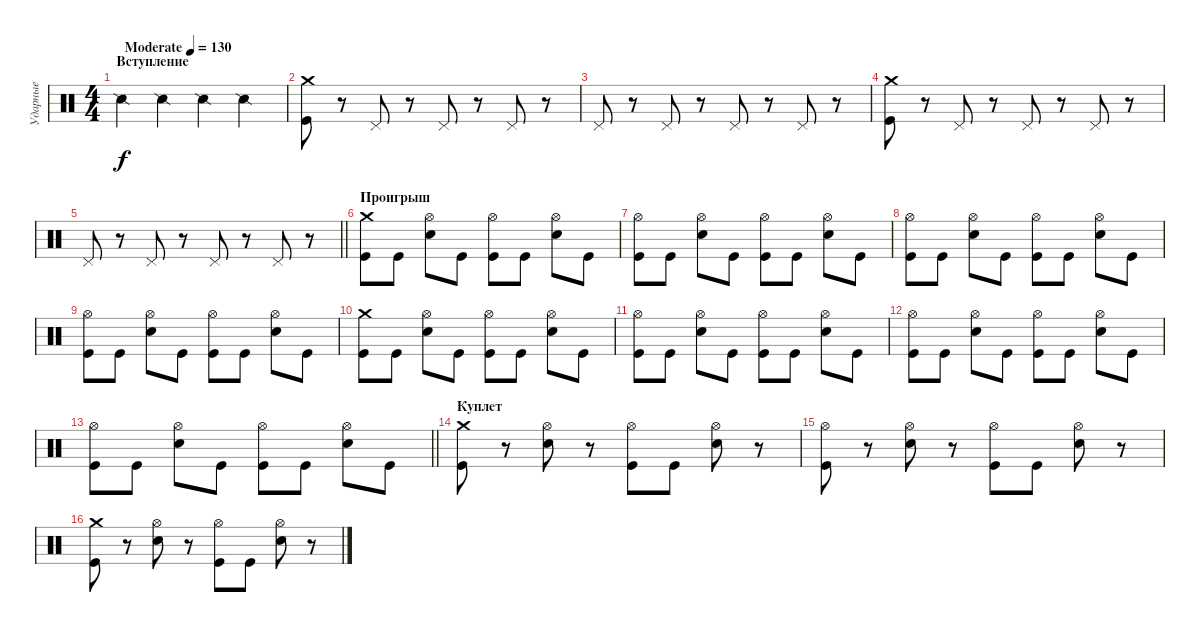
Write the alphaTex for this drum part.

\track ("Ударные" "Ударные") {instrument percussion}
\staff {score}
\articulation defaults
\ts (4 4)
\section ("" "Вступление")
\tempo (130 "Moderate")
\clef neutral
\ks c "Snare (side stick) 2".4{dy f} "Snare (side stick) 2".4 "Snare (side stick) 2".4 "Snare (side stick) 2".4
|
("Crash medium (hit)" "Kick (hit)").8 r.8 "Pedal Hi-Hat (hit)".8 r.8 "Pedal Hi-Hat (hit)".8 r.8 "Pedal Hi-Hat (hit)".8 r.8 |
"Pedal Hi-Hat (hit)".8 r.8 "Pedal Hi-Hat (hit)".8 r.8 "Pedal Hi-Hat (hit)".8 r.8 "Pedal Hi-Hat (hit)".8 r.8 |
("Crash medium (hit)" "Kick (hit)").8 r.8 "Pedal Hi-Hat (hit)".8 r.8 "Pedal Hi-Hat (hit)".8 r.8 "Pedal Hi-Hat (hit)".8 r.8 |
\barLineRight lightlight "Pedal Hi-Hat (hit)".8
r.8 "Pedal Hi-Hat (hit)".8 r.8 "Pedal Hi-Hat (hit)".8 r.8 "Pedal Hi-Hat (hit)".8 r.8 |
\section ("" "Проигрыш")
("Crash medium (hit)" "Kick (hit)").8 "Kick (hit)".8 ("Hi-Hat (open)" "Electric Snare (hit)").8 "Kick (hit)".8 ("Hi-Hat (open)" "Kick (hit)").8 "Kick (hit)".8 ("Hi-Hat (open)" "Electric Snare (hit)").8 "Kick (hit)".8 |
("Hi-Hat (open)" "Kick (hit)").8 "Kick (hit)".8 ("Hi-Hat (open)" "Electric Snare (hit)").8 "Kick (hit)".8 ("Hi-Hat (open)" "Kick (hit)").8 "Kick (hit)".8 ("Hi-Hat (open)" "Electric Snare (hit)").8 "Kick (hit)".8 |
("Hi-Hat (open)" "Kick (hit)").8 "Kick (hit)".8 ("Hi-Hat (open)" "Electric Snare (hit)").8 "Kick (hit)".8 ("Hi-Hat (open)" "Kick (hit)").8 "Kick (hit)".8 ("Hi-Hat (open)" "Electric Snare (hit)").8 "Kick (hit)".8 |
("Hi-Hat (open)" "Kick (hit)").8 "Kick (hit)".8 ("Hi-Hat (open)" "Electric Snare (hit)").8 "Kick (hit)".8 ("Hi-Hat (open)" "Kick (hit)").8 "Kick (hit)".8 ("Hi-Hat (open)" "Electric Snare (hit)").8 "Kick (hit)".8 |
("Crash medium (hit)" "Kick (hit)").8 "Kick (hit)".8 ("Hi-Hat (open)" "Electric Snare (hit)").8 "Kick (hit)".8 ("Hi-Hat (open)" "Kick (hit)").8 "Kick (hit)".8 ("Hi-Hat (open)" "Electric Snare (hit)").8 "Kick (hit)".8 |
("Hi-Hat (open)" "Kick (hit)").8 "Kick (hit)".8 ("Hi-Hat (open)" "Electric Snare (hit)").8 "Kick (hit)".8 ("Hi-Hat (open)" "Kick (hit)").8 "Kick (hit)".8 ("Hi-Hat (open)" "Electric Snare (hit)").8 "Kick (hit)".8 |
("Hi-Hat (open)" "Kick (hit)").8 "Kick (hit)".8 ("Hi-Hat (open)" "Electric Snare (hit)").8 "Kick (hit)".8 ("Hi-Hat (open)" "Kick (hit)").8 "Kick (hit)".8 ("Hi-Hat (open)" "Electric Snare (hit)").8 "Kick (hit)".8 |
\barLineRight lightlight
("Hi-Hat (open)" "Kick (hit)").8 "Kick (hit)".8 ("Hi-Hat (open)" "Electric Snare (hit)").8 "Kick (hit)".8 ("Hi-Hat (open)" "Kick (hit)").8 "Kick (hit)".8 ("Hi-Hat (open)" "Electric Snare (hit)").8 "Kick (hit)".8 |
\section ("" "Куплет")
("Crash medium (hit)" "Kick (hit)").8 r.8 ("Hi-Hat (open)" "Electric Snare (hit)").8 r.8 ("Hi-Hat (open)" "Kick (hit)").8 "Kick (hit)".8 ("Hi-Hat (open)" "Electric Snare (hit)").8 r.8 |
("Hi-Hat (open)" "Kick (hit)").8 r.8 ("Hi-Hat (open)" "Electric Snare (hit)").8 r.8 ("Hi-Hat (open)" "Kick (hit)").8 "Kick (hit)".8 ("Hi-Hat (open)" "Electric Snare (hit)").8 r.8 |
("Crash medium (hit)" "Kick (hit)").8 r.8 ("Hi-Hat (open)" "Electric Snare (hit)").8 r.8 ("Hi-Hat (open)" "Kick (hit)").8 "Kick (hit)".8 ("Hi-Hat (open)" "Electric Snare (hit)").8 r.8
